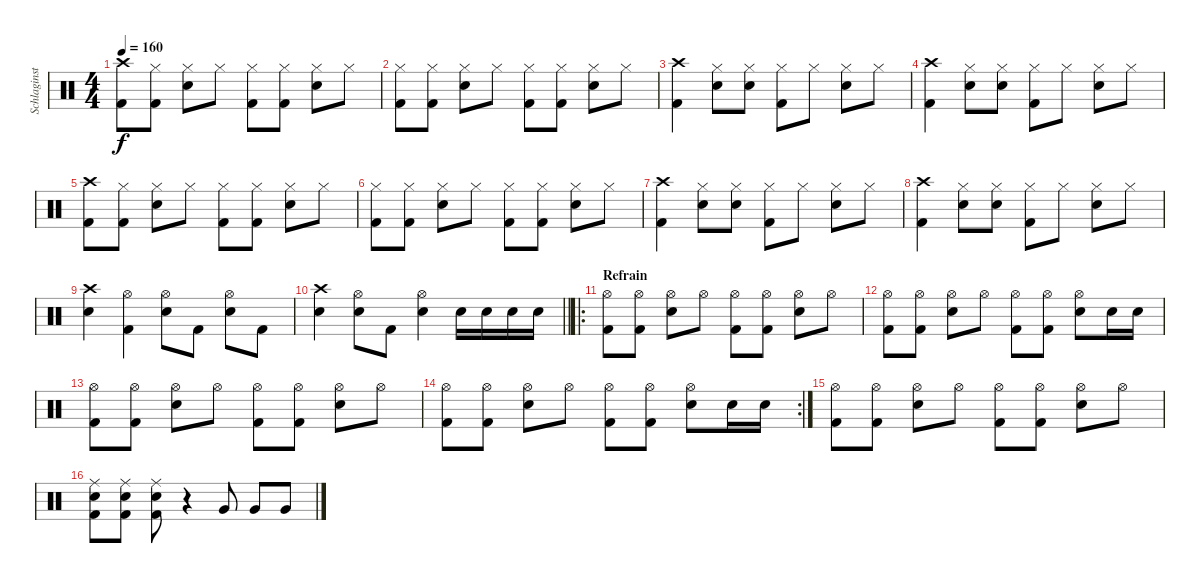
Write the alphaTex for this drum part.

\track ("Schlaginstrumente - Auswahl" "Schlaginst") {instrument percussion}
\staff {score}
\articulation defaults
\ts (4 4)
\tempo 160
\clef neutral
\ks c
("Crash high (hit)" "Kick (hit) 2").8{dy f} ("Hi-Hat (closed)" "Kick (hit) 2").8 ("Hi-Hat (closed)" "Electric Snare (hit)").8 "Hi-Hat (closed)".8 ("Hi-Hat (closed)" "Kick (hit) 2").8 ("Hi-Hat (closed)" "Kick (hit) 2").8 ("Hi-Hat (closed)" "Electric Snare (hit)").8 "Hi-Hat (closed)".8 |
("Hi-Hat (closed)" "Kick (hit) 2").8 ("Hi-Hat (closed)" "Kick (hit) 2").8 ("Hi-Hat (closed)" "Electric Snare (hit)").8 "Hi-Hat (closed)".8 ("Hi-Hat (closed)" "Kick (hit) 2").8 ("Hi-Hat (closed)" "Kick (hit) 2").8 ("Hi-Hat (closed)" "Electric Snare (hit)").8 "Hi-Hat (closed)".8 |
("Crash high (hit)" "Kick (hit) 2").4 ("Hi-Hat (closed)" "Electric Snare (hit)").8 ("Hi-Hat (closed)" "Electric Snare (hit)").8 ("Hi-Hat (closed)" "Kick (hit) 2").8 "Hi-Hat (closed)".8 ("Hi-Hat (closed)" "Electric Snare (hit)").8 "Hi-Hat (closed)".8 |
("Crash high (hit)" "Kick (hit) 2").4 ("Hi-Hat (closed)" "Electric Snare (hit)").8 ("Hi-Hat (closed)" "Electric Snare (hit)").8 ("Hi-Hat (closed)" "Kick (hit) 2").8 "Hi-Hat (closed)".8 ("Hi-Hat (closed)" "Electric Snare (hit)").8 "Hi-Hat (closed)".8 |
("Crash high (hit)" "Kick (hit) 2").8 ("Hi-Hat (closed)" "Kick (hit) 2").8 ("Hi-Hat (closed)" "Electric Snare (hit)").8 "Hi-Hat (closed)".8 ("Hi-Hat (closed)" "Kick (hit) 2").8 ("Hi-Hat (closed)" "Kick (hit) 2").8 ("Hi-Hat (closed)" "Electric Snare (hit)").8 "Hi-Hat (closed)".8 |
("Hi-Hat (closed)" "Kick (hit) 2").8 ("Hi-Hat (closed)" "Kick (hit) 2").8 ("Hi-Hat (closed)" "Electric Snare (hit)").8 "Hi-Hat (closed)".8 ("Hi-Hat (closed)" "Kick (hit) 2").8 ("Hi-Hat (closed)" "Kick (hit) 2").8 ("Hi-Hat (closed)" "Electric Snare (hit)").8 "Hi-Hat (closed)".8 |
("Crash high (hit)" "Kick (hit) 2").4 ("Hi-Hat (closed)" "Electric Snare (hit)").8 ("Hi-Hat (closed)" "Electric Snare (hit)").8 ("Hi-Hat (closed)" "Kick (hit) 2").8 "Hi-Hat (closed)".8 ("Hi-Hat (closed)" "Electric Snare (hit)").8 "Hi-Hat (closed)".8 |
("Crash high (hit)" "Kick (hit) 2").4 ("Hi-Hat (closed)" "Electric Snare (hit)").8 ("Hi-Hat (closed)" "Electric Snare (hit)").8 ("Hi-Hat (closed)" "Kick (hit) 2").8 "Hi-Hat (closed)".8 ("Hi-Hat (closed)" "Electric Snare (hit)").8 "Hi-Hat (closed)".8 |
("Crash high (hit)" "Electric Snare (hit)").4 ("Hi-Hat (open)" "Kick (hit) 2").4 ("Hi-Hat (open)" "Electric Snare (hit)").8 "Kick (hit) 2".8 ("Hi-Hat (open)" "Electric Snare (hit)").8 "Kick (hit) 2".8 |
\barLineRight lightlight
("Crash high (hit)" "Electric Snare (hit)").4 ("Hi-Hat (open)" "Electric Snare (hit)").8 "Kick (hit) 2".8 ("Hi-Hat (open)" "Electric Snare (hit)").4 "Electric Snare (hit)".16 "Electric Snare (hit)".16 "Electric Snare (hit)".16 "Electric Snare (hit)".16 |
\ro
\section ("" "Refrain")
("Hi-Hat (open)" "Kick (hit) 2").8 ("Hi-Hat (open)" "Kick (hit) 2").8 ("Hi-Hat (open)" "Electric Snare (hit)").8 "Hi-Hat (open)".8 ("Hi-Hat (open)" "Kick (hit) 2").8 ("Hi-Hat (open)" "Kick (hit) 2").8 ("Hi-Hat (open)" "Electric Snare (hit)").8 "Hi-Hat (open)".8 |
("Hi-Hat (open)" "Kick (hit) 2").8 ("Hi-Hat (open)" "Kick (hit) 2").8 ("Hi-Hat (open)" "Electric Snare (hit)").8 "Hi-Hat (open)".8 ("Hi-Hat (open)" "Kick (hit) 2").8 ("Hi-Hat (open)" "Kick (hit) 2").8 ("Hi-Hat (open)" "Electric Snare (hit)").8 "Electric Snare (hit)".16 "Electric Snare (hit)".16 |
("Hi-Hat (open)" "Kick (hit) 2").8 ("Hi-Hat (open)" "Kick (hit) 2").8 ("Hi-Hat (open)" "Electric Snare (hit)").8 "Hi-Hat (open)".8 ("Hi-Hat (open)" "Kick (hit) 2").8 ("Hi-Hat (open)" "Kick (hit) 2").8 ("Hi-Hat (open)" "Electric Snare (hit)").8 "Hi-Hat (open)".8 |
\rc 2
("Hi-Hat (open)" "Kick (hit) 2").8 ("Hi-Hat (open)" "Kick (hit) 2").8 ("Hi-Hat (open)" "Electric Snare (hit)").8 "Hi-Hat (open)".8 ("Hi-Hat (open)" "Kick (hit) 2").8 ("Hi-Hat (open)" "Kick (hit) 2").8 ("Hi-Hat (open)" "Electric Snare (hit)").8 "Electric Snare (hit)".16 "Electric Snare (hit)".16 |
("Hi-Hat (open)" "Kick (hit) 2").8 ("Hi-Hat (open)" "Kick (hit) 2").8 ("Hi-Hat (open)" "Electric Snare (hit)").8 "Hi-Hat (open)".8 ("Hi-Hat (open)" "Kick (hit) 2").8 ("Hi-Hat (open)" "Kick (hit) 2").8 ("Hi-Hat (open)" "Electric Snare (hit)").8 "Hi-Hat (open)".8 |
("Ride (middle)" "Electric Snare (hit)" "Kick (hit) 2").8 ("Ride (middle)" "Electric Snare (hit)" "Kick (hit) 2").8 ("Ride (middle)" "Electric Snare (hit)" "Kick (hit) 2").8 r.4 "Very Low Tom (hit)".8 "Very Low Tom (hit)".8 "Very Low Tom (hit)".8
